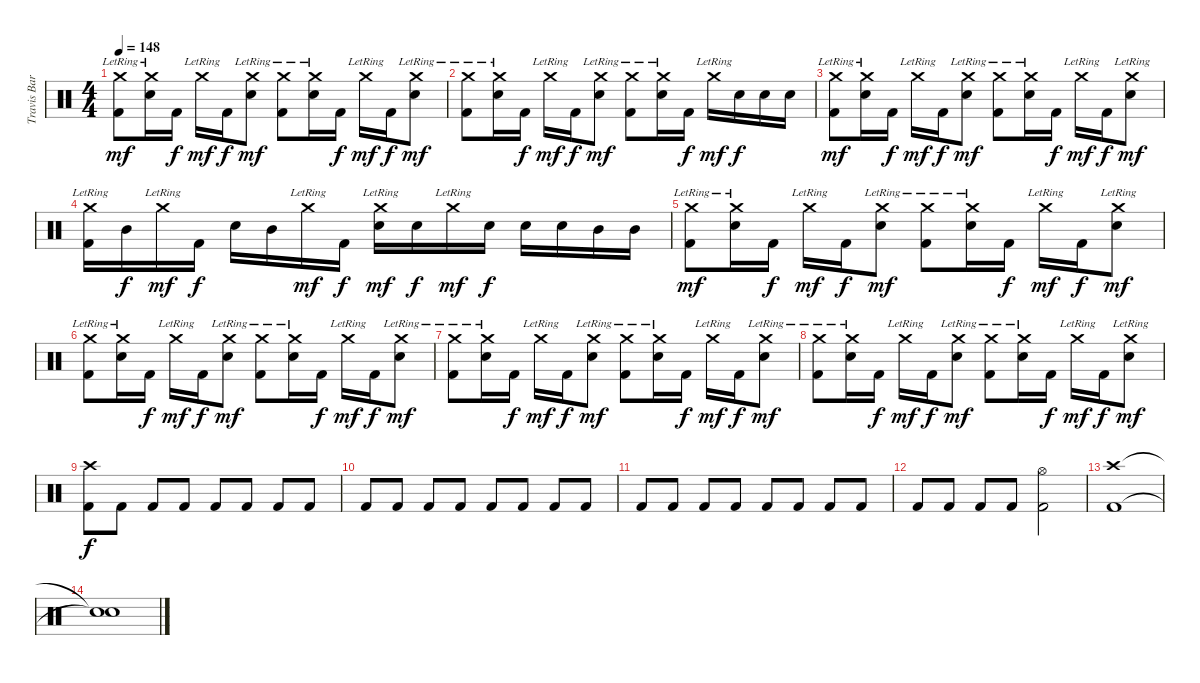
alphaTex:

\track ("Travis Barker - Drums" "Travis Bar") {instrument percussion}
\staff {score}
\articulation defaults
\ts (4 4)
\tempo 148
\clef neutral
\ks c
("Crash medium (hit)"{lr} "Kick (hit) 2").8{dy mf} ("Crash medium (hit)"{lr} "Electric Snare (hit)").16 "Kick (hit) 2".16{dy f} "Crash medium (hit)"{lr}.16{dy mf} "Kick (hit) 2".16{dy f} ("Crash medium (hit)"{lr} "Electric Snare (hit)").8{dy mf} ("Crash medium (hit)"{lr} "Kick (hit) 2").8 ("Crash medium (hit)"{lr} "Electric Snare (hit)").16 "Kick (hit) 2".16{dy f} "Crash medium (hit)"{lr}.16{dy mf} "Kick (hit) 2".16{dy f} ("Crash medium (hit)"{lr} "Electric Snare (hit)").8{dy mf} |
("Crash medium (hit)"{lr} "Kick (hit) 2").8 ("Crash medium (hit)"{lr} "Electric Snare (hit)").16 "Kick (hit) 2".16{dy f} "Crash medium (hit)"{lr}.16{dy mf} "Kick (hit) 2".16{dy f} ("Crash medium (hit)"{lr} "Electric Snare (hit)").8{dy mf} ("Crash medium (hit)"{lr} "Kick (hit) 2").8 ("Crash medium (hit)"{lr} "Electric Snare (hit)").16 "Kick (hit) 2".16{dy f} "Crash medium (hit)"{lr}.16{dy mf} "Electric Snare (hit)".16{dy f} "Electric Snare (hit)".16 "Electric Snare (hit)".16 |
("Crash medium (hit)"{lr} "Kick (hit) 2").8{dy mf} ("Crash medium (hit)"{lr} "Electric Snare (hit)").16 "Kick (hit) 2".16{dy f} "Crash medium (hit)"{lr}.16{dy mf} "Kick (hit) 2".16{dy f} ("Crash medium (hit)"{lr} "Electric Snare (hit)").8{dy mf} ("Crash medium (hit)"{lr} "Kick (hit) 2").8 ("Crash medium (hit)"{lr} "Electric Snare (hit)").16 "Kick (hit) 2".16{dy f} "Crash medium (hit)"{lr}.16{dy mf} "Kick (hit) 2".16{dy f} ("Crash medium (hit)"{lr} "Electric Snare (hit)").8{dy mf} |
("Crash medium (hit)"{lr} "Kick (hit) 2").16 "Mid Tom (hit)".16{dy f} "Crash medium (hit)"{lr}.16{dy mf} "Kick (hit) 2".16{dy f} "Electric Snare (hit)".16 "Mid Tom (hit)".16 "Crash medium (hit)"{lr}.16{dy mf} "Kick (hit) 2".16{dy f} ("Crash medium (hit)"{lr} "Electric Snare (hit)").16{dy mf} "Electric Snare (hit)".16{dy f} "Crash medium (hit)"{lr}.16{dy mf} "Electric Snare (hit)".16{dy f} "Electric Snare (hit)".16 "Electric Snare (hit)".16 "Mid Tom (hit)".16 "Mid Tom (hit)".16 |
("Crash medium (hit)"{lr} "Kick (hit) 2").8{dy mf} ("Crash medium (hit)"{lr} "Electric Snare (hit)").16 "Kick (hit) 2".16{dy f} "Crash medium (hit)"{lr}.16{dy mf} "Kick (hit) 2".16{dy f} ("Crash medium (hit)"{lr} "Electric Snare (hit)").8{dy mf} ("Crash medium (hit)"{lr} "Kick (hit) 2").8 ("Crash medium (hit)"{lr} "Electric Snare (hit)").16 "Kick (hit) 2".16{dy f} "Crash medium (hit)"{lr}.16{dy mf} "Kick (hit) 2".16{dy f} ("Crash medium (hit)"{lr} "Electric Snare (hit)").8{dy mf} |
("Crash medium (hit)"{lr} "Kick (hit) 2").8 ("Crash medium (hit)"{lr} "Electric Snare (hit)").16 "Kick (hit) 2".16{dy f} "Crash medium (hit)"{lr}.16{dy mf} "Kick (hit) 2".16{dy f} ("Crash medium (hit)"{lr} "Electric Snare (hit)").8{dy mf} ("Crash medium (hit)"{lr} "Kick (hit) 2").8 ("Crash medium (hit)"{lr} "Electric Snare (hit)").16 "Kick (hit) 2".16{dy f} "Crash medium (hit)"{lr}.16{dy mf} "Kick (hit) 2".16{dy f} ("Crash medium (hit)"{lr} "Electric Snare (hit)").8{dy mf} |
("Crash medium (hit)"{lr} "Kick (hit) 2").8 ("Crash medium (hit)"{lr} "Electric Snare (hit)").16 "Kick (hit) 2".16{dy f} "Crash medium (hit)"{lr}.16{dy mf} "Kick (hit) 2".16{dy f} ("Crash medium (hit)"{lr} "Electric Snare (hit)").8{dy mf} ("Crash medium (hit)"{lr} "Kick (hit) 2").8 ("Crash medium (hit)"{lr} "Electric Snare (hit)").16 "Kick (hit) 2".16{dy f} "Crash medium (hit)"{lr}.16{dy mf} "Kick (hit) 2".16{dy f} ("Crash medium (hit)"{lr} "Electric Snare (hit)").8{dy mf} |
("Crash medium (hit)"{lr} "Kick (hit) 2").8 ("Crash medium (hit)"{lr} "Electric Snare (hit)").16 "Kick (hit) 2".16{dy f} "Crash medium (hit)"{lr}.16{dy mf} "Kick (hit) 2".16{dy f} ("Crash medium (hit)"{lr} "Electric Snare (hit)").8{dy mf} ("Crash medium (hit)"{lr} "Kick (hit) 2").8 ("Crash medium (hit)"{lr} "Electric Snare (hit)").16 "Kick (hit) 2".16{dy f} "Crash medium (hit)"{lr}.16{dy mf} "Kick (hit) 2".16{dy f} ("Crash medium (hit)"{lr} "Electric Snare (hit)").8{dy mf} |
("Crash high (hit)" "Kick (hit) 2").8{dy f} "Kick (hit) 2".8 "Kick (hit) 2".8 "Kick (hit) 2".8 "Kick (hit) 2".8 "Kick (hit) 2".8 "Kick (hit) 2".8 "Kick (hit) 2".8 |
"Kick (hit) 2".8 "Kick (hit) 2".8 "Kick (hit) 2".8 "Kick (hit) 2".8 "Kick (hit) 2".8 "Kick (hit) 2".8 "Kick (hit) 2".8 "Kick (hit) 2".8 |
"Kick (hit) 2".8 "Kick (hit) 2".8 "Kick (hit) 2".8 "Kick (hit) 2".8 "Kick (hit) 2".8 "Kick (hit) 2".8 "Kick (hit) 2".8 "Kick (hit) 2".8 |
"Kick (hit) 2".8 "Kick (hit) 2".8 "Kick (hit) 2".8 "Kick (hit) 2".8 ("Hi-Hat (open)" "Kick (hit) 2").2 |
("Crash high (hit)" "Kick (hit) 2").1 |
("Snare (hit)"{t} "Snare (hit)"{t}).1
